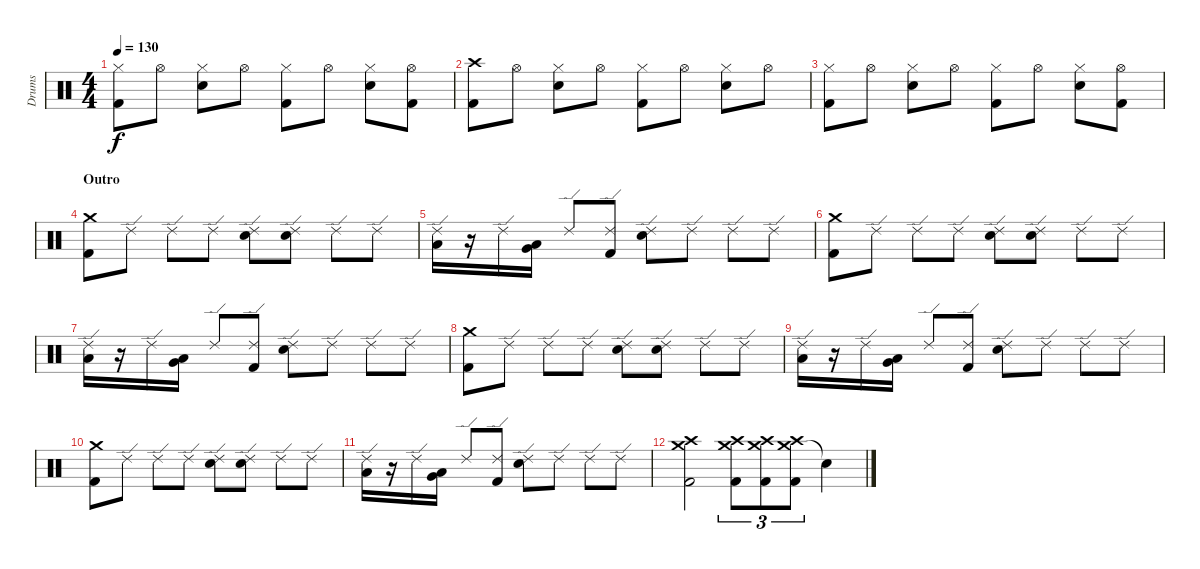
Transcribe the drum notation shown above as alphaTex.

\track ("Drums" "Drums") {instrument percussion}
\staff {score}
\articulation defaults
\ts (4 4)
\tempo 130
\clef neutral
\ks c
("Hi-Hat (closed)" "Kick (hit) 2").8{dy f} "Hi-Hat (open)".8 ("Hi-Hat (closed)" "Snare (hit) 2").8 "Hi-Hat (open)".8 ("Hi-Hat (closed)" "Kick (hit) 2").8 "Hi-Hat (open)".8 ("Hi-Hat (closed)" "Snare (hit) 2").8 ("Hi-Hat (open)" "Kick (hit) 2").8 |
("Crash high (hit)" "Kick (hit) 2").8 "Hi-Hat (open)".8 ("Hi-Hat (closed)" "Snare (hit) 2").8 "Hi-Hat (open)".8 ("Hi-Hat (closed)" "Kick (hit) 2").8 "Hi-Hat (open)".8 ("Hi-Hat (closed)" "Snare (hit) 2").8 "Hi-Hat (open)".8 |
("Hi-Hat (closed)" "Kick (hit) 2").8 "Hi-Hat (open)".8 ("Hi-Hat (closed)" "Snare (hit) 2").8 "Hi-Hat (open)".8 ("Hi-Hat (closed)" "Kick (hit) 2").8 "Hi-Hat (open)".8 ("Hi-Hat (closed)" "Snare (hit) 2").8 ("Hi-Hat (open)" "Kick (hit) 2").8 |
\section ("" "Outro")
("Crash medium (hit)" "Kick (hit) 2").8 "Ride (edge) 2".8 "Ride (edge) 2".8 "Ride (edge) 2".8 ("Ride (edge) 2" "Snare (hit) 2").8 ("Ride (edge) 2" "Snare (hit) 2").8 "Ride (edge) 2".8 "Ride (edge) 2".8 |
("Ride (edge) 2" "Low Tom (hit)").16 r.16 "Ride (edge) 2".16 ("Very Low Tom (hit)" "Low Tom (hit)").16 "Ride (edge) 2".8 ("Ride (edge) 2" "Kick (hit) 2").8 ("Ride (edge) 2" "Snare (hit) 2").8 "Ride (edge) 2".8 "Ride (edge) 2".8 "Ride (edge) 2".8 |
("Crash medium (hit)" "Kick (hit) 2").8 "Ride (edge) 2".8 "Ride (edge) 2".8 "Ride (edge) 2".8 ("Ride (edge) 2" "Snare (hit) 2").8 ("Ride (edge) 2" "Snare (hit) 2").8 "Ride (edge) 2".8 "Ride (edge) 2".8 |
("Ride (edge) 2" "Low Tom (hit)").16 r.16 "Ride (edge) 2".16 ("Very Low Tom (hit)" "Low Tom (hit)").16 "Ride (edge) 2".8 ("Ride (edge) 2" "Kick (hit) 2").8 ("Ride (edge) 2" "Snare (hit) 2").8 "Ride (edge) 2".8 "Ride (edge) 2".8 "Ride (edge) 2".8 |
("Crash medium (hit)" "Kick (hit) 2").8 "Ride (edge) 2".8 "Ride (edge) 2".8 "Ride (edge) 2".8 ("Ride (edge) 2" "Snare (hit) 2").8 ("Ride (edge) 2" "Snare (hit) 2").8 "Ride (edge) 2".8 "Ride (edge) 2".8 |
("Ride (edge) 2" "Low Tom (hit)").16 r.16 "Ride (edge) 2".16 ("Very Low Tom (hit)" "Low Tom (hit)").16 "Ride (edge) 2".8 ("Ride (edge) 2" "Kick (hit) 2").8 ("Ride (edge) 2" "Snare (hit) 2").8 "Ride (edge) 2".8 "Ride (edge) 2".8 "Ride (edge) 2".8 |
("Crash medium (hit)" "Kick (hit) 2").8 "Ride (edge) 2".8 "Ride (edge) 2".8 "Ride (edge) 2".8 ("Ride (edge) 2" "Snare (hit) 2").8 ("Ride (edge) 2" "Snare (hit) 2").8 "Ride (edge) 2".8 "Ride (edge) 2".8 |
("Ride (edge) 2" "Low Tom (hit)").16 r.16 "Ride (edge) 2".16 ("Very Low Tom (hit)" "Low Tom (hit)").16 "Ride (edge) 2".8 ("Ride (edge) 2" "Kick (hit) 2").8 ("Ride (edge) 2" "Snare (hit) 2").8 "Ride (edge) 2".8 "Ride (edge) 2".8 "Ride (edge) 2".8 |
("Crash medium (hit)" "Crash high (hit)" "Kick (hit) 2").2 ("Crash medium (hit)" "Crash high (hit)" "Kick (hit) 2").8{tu (3 2)} ("Crash medium (hit)" "Crash high (hit)" "Kick (hit) 2").8{tu (3 2)} ("Crash medium (hit)" "Crash high (hit)" "Kick (hit) 2").8{tu (3 2)} "Snare (hit)"{t}.4
